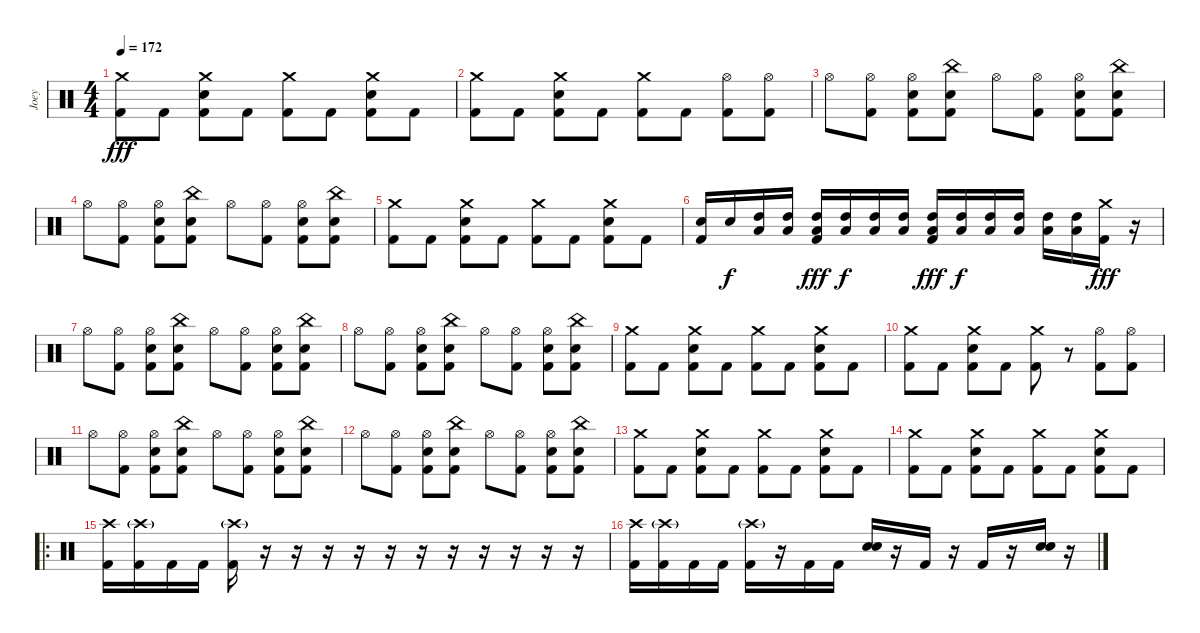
\track ("Joey" "Joey") {instrument percussion}
\staff {score}
\articulation defaults
\ts (4 4)
\tempo 172
\clef neutral
\ks c
("Crash medium (hit)" "Kick (hit) 2").8{dy fff} "Kick (hit) 2".8 ("Crash medium (hit)" "Snare (hit) 2" "Kick (hit) 2").8 "Kick (hit) 2".8 ("Crash medium (hit)" "Kick (hit) 2").8 "Kick (hit) 2".8 ("Crash medium (hit)" "Snare (hit) 2" "Kick (hit) 2").8 "Kick (hit) 2".8 |
("Crash medium (hit)" "Kick (hit) 2").8 "Kick (hit) 2".8 ("Crash medium (hit)" "Snare (hit) 2" "Kick (hit) 2").8 "Kick (hit) 2".8 ("Crash medium (hit)" "Kick (hit) 2").8 "Kick (hit) 2".8 ("Hi-Hat (open)" "Kick (hit) 2").8 ("Hi-Hat (open)" "Kick (hit) 2").8 |
"Hi-Hat (open)".8 ("Hi-Hat (open)" "Kick (hit) 2").8 ("Hi-Hat (open)" "Snare (hit) 2" "Kick (hit) 2").8 ("China (hit)" "Snare (hit) 2" "Kick (hit) 2").8 "Hi-Hat (open)".8 ("Hi-Hat (open)" "Kick (hit) 2").8 ("Hi-Hat (open)" "Snare (hit) 2" "Kick (hit) 2").8 ("China (hit)" "Snare (hit) 2" "Kick (hit) 2").8 |
"Hi-Hat (open)".8 ("Hi-Hat (open)" "Kick (hit) 2").8 ("Hi-Hat (open)" "Snare (hit) 2" "Kick (hit) 2").8 ("China (hit)" "Snare (hit) 2" "Kick (hit) 2").8 "Hi-Hat (open)".8 ("Hi-Hat (open)" "Kick (hit) 2").8 ("Hi-Hat (open)" "Snare (hit) 2" "Kick (hit) 2").8 ("China (hit)" "Snare (hit) 2" "Kick (hit) 2").8 |
("Crash medium (hit)" "Kick (hit) 2").8 "Kick (hit) 2".8 ("Crash medium (hit)" "Snare (hit) 2" "Kick (hit) 2").8 "Kick (hit) 2".8 ("Crash medium (hit)" "Kick (hit) 2").8 "Kick (hit) 2".8 ("Crash medium (hit)" "Snare (hit) 2" "Kick (hit) 2").8 "Kick (hit) 2".8 |
("Snare (hit) 2" "Kick (hit) 2").16 "Snare (hit) 2".16{dy f} ("High Tom (hit)" "Low Tom (hit)").16 ("High Tom (hit)" "Low Tom (hit)").16 ("High Tom (hit)" "Low Tom (hit)" "Kick (hit) 2").16{dy fff} ("High Tom (hit)" "Low Tom (hit)").16{dy f} ("High Tom (hit)" "Low Floor Tom (hit)").16 ("High Tom (hit)" "Low Floor Tom (hit)").16 ("High Tom (hit)" "Low Floor Tom (hit)" "Kick (hit) 2").16{dy fff} ("High Tom (hit)" "Low Floor Tom (hit)").16{dy f} ("High Tom (hit)" "Low Floor Tom (hit)").16 ("High Tom (hit)" "Low Floor Tom (hit)").16 ("High Tom (hit)" "Low Floor Tom (hit)").16 ("High Tom (hit)" "Low Floor Tom (hit)").16 ("Crash medium (hit)" "Kick (hit) 2").16{dy fff} r.16 |
"Hi-Hat (open)".8 ("Hi-Hat (open)" "Kick (hit) 2").8 ("Hi-Hat (open)" "Snare (hit) 2" "Kick (hit) 2").8 ("China (hit)" "Snare (hit) 2" "Kick (hit) 2").8 "Hi-Hat (open)".8 ("Hi-Hat (open)" "Kick (hit) 2").8 ("Hi-Hat (open)" "Snare (hit) 2" "Kick (hit) 2").8 ("China (hit)" "Snare (hit) 2" "Kick (hit) 2").8 |
"Hi-Hat (open)".8 ("Hi-Hat (open)" "Kick (hit) 2").8 ("Hi-Hat (open)" "Snare (hit) 2" "Kick (hit) 2").8 ("China (hit)" "Snare (hit) 2" "Kick (hit) 2").8 "Hi-Hat (open)".8 ("Hi-Hat (open)" "Kick (hit) 2").8 ("Hi-Hat (open)" "Snare (hit) 2" "Kick (hit) 2").8 ("China (hit)" "Snare (hit) 2" "Kick (hit) 2").8 |
("Crash medium (hit)" "Kick (hit) 2").8 "Kick (hit) 2".8 ("Crash medium (hit)" "Snare (hit) 2" "Kick (hit) 2").8 "Kick (hit) 2".8 ("Crash medium (hit)" "Kick (hit) 2").8 "Kick (hit) 2".8 ("Crash medium (hit)" "Snare (hit) 2" "Kick (hit) 2").8 "Kick (hit) 2".8 |
("Crash medium (hit)" "Kick (hit) 2").8 "Kick (hit) 2".8 ("Crash medium (hit)" "Snare (hit) 2" "Kick (hit) 2").8 "Kick (hit) 2".8 ("Crash medium (hit)" "Kick (hit) 2").8 r.8 ("Hi-Hat (open)" "Kick (hit) 2").8 ("Hi-Hat (open)" "Kick (hit) 2").8 |
"Hi-Hat (open)".8 ("Hi-Hat (open)" "Kick (hit) 2").8 ("Hi-Hat (open)" "Snare (hit) 2" "Kick (hit) 2").8 ("China (hit)" "Snare (hit) 2" "Kick (hit) 2").8 "Hi-Hat (open)".8 ("Hi-Hat (open)" "Kick (hit) 2").8 ("Hi-Hat (open)" "Snare (hit) 2" "Kick (hit) 2").8 ("China (hit)" "Snare (hit) 2" "Kick (hit) 2").8 |
"Hi-Hat (open)".8 ("Hi-Hat (open)" "Kick (hit) 2").8 ("Hi-Hat (open)" "Snare (hit) 2" "Kick (hit) 2").8 ("China (hit)" "Snare (hit) 2" "Kick (hit) 2").8 "Hi-Hat (open)".8 ("Hi-Hat (open)" "Kick (hit) 2").8 ("Hi-Hat (open)" "Snare (hit) 2" "Kick (hit) 2").8 ("China (hit)" "Snare (hit) 2" "Kick (hit) 2").8 |
("Crash medium (hit)" "Kick (hit) 2").8 "Kick (hit) 2".8 ("Crash medium (hit)" "Snare (hit) 2" "Kick (hit) 2").8 "Kick (hit) 2".8 ("Crash medium (hit)" "Kick (hit) 2").8 "Kick (hit) 2".8 ("Crash medium (hit)" "Snare (hit) 2" "Kick (hit) 2").8 "Kick (hit) 2".8 |
("Crash medium (hit)" "Kick (hit) 2").8 "Kick (hit) 2".8 ("Crash medium (hit)" "Snare (hit) 2" "Kick (hit) 2").8 "Kick (hit) 2".8 ("Crash medium (hit)" "Kick (hit) 2").8 "Kick (hit) 2".8 ("Crash medium (hit)" "Snare (hit) 2" "Kick (hit) 2").8 "Kick (hit) 2".8 |
\ro
("Crash high (hit)" "Kick (hit) 2").16 ("Crash high (hit)"{g} "Kick (hit) 2").16 "Kick (hit) 2".16 "Kick (hit) 2".16 ("Crash high (hit)"{g} "Kick (hit) 2").16 r.16 r.16 r.16 r.16 r.16 r.16 r.16 r.16 r.16 r.16 r.16 |
("Crash high (hit)" "Kick (hit) 2").16 ("Crash high (hit)"{g} "Kick (hit) 2").16 "Kick (hit) 2".16 "Kick (hit) 2".16 ("Crash high (hit)"{g} "Kick (hit) 2").16 r.16 "Kick (hit) 2".16 "Kick (hit) 2".16 ("Snare (hit) 2" "Snare (hit) 2").16 r.16 "Kick (hit) 2".16 r.16 "Kick (hit) 2".16 r.16 ("Snare (hit) 2" "Snare (hit) 2").16 r.16
